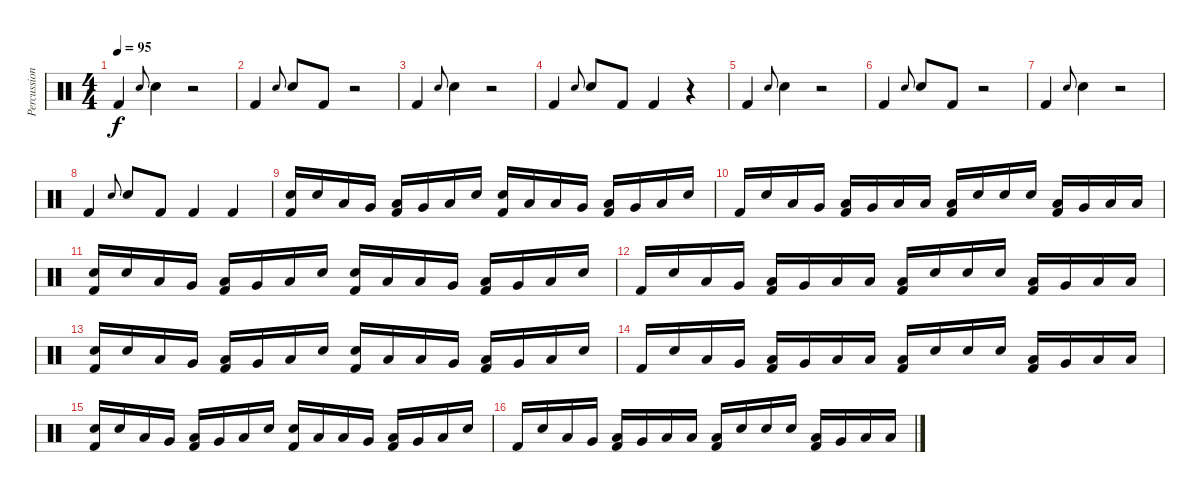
\track ("Percussion" "Percussion") {instrument percussion}
\staff {score}
\articulation defaults
\ts (4 4)
\tempo 95
\clef neutral
\ks c "Kick (hit) 2".4{dy f} "Electric Snare (hit)".8{gr onbeat} "Electric Snare (hit)".4
r.2 |
"Kick (hit) 2".4 "Electric Snare (hit)".8{gr onbeat} "Electric Snare (hit)".8 "Kick (hit) 2".8 r.2 |
"Kick (hit) 2".4 "Electric Snare (hit)".8{gr onbeat} "Electric Snare (hit)".4 r.2 |
"Kick (hit) 2".4 "Electric Snare (hit)".8{gr onbeat} "Electric Snare (hit)".8 "Kick (hit) 2".8 "Kick (hit) 2".4 r.4 |
"Kick (hit) 2".4 "Electric Snare (hit)".8{gr onbeat} "Electric Snare (hit)".4 r.2 |
"Kick (hit) 2".4 "Electric Snare (hit)".8{gr onbeat} "Electric Snare (hit)".8 "Kick (hit) 2".8 r.2 |
"Kick (hit) 2".4 "Electric Snare (hit)".8{gr onbeat} "Electric Snare (hit)".4 r.2 |
"Kick (hit) 2".4 "Electric Snare (hit)".8{gr onbeat} "Electric Snare (hit)".8 "Kick (hit) 2".8 "Kick (hit) 2".4 "Kick (hit) 2".4 |
("Electric Snare (hit)" "Kick (hit) 2").16 "Electric Snare (hit)".16 "Low Tom (hit)".16 "Very Low Tom (hit)".16 ("Low Tom (hit)" "Kick (hit) 2").16 "Very Low Tom (hit)".16 "Low Floor Tom (hit)".16 "Electric Snare (hit)".16 ("Electric Snare (hit)" "Kick (hit) 2").16 "Low Tom (hit)".16 "Low Tom (hit)".16 "Very Low Tom (hit)".16 ("Low Tom (hit)" "Kick (hit) 2").16 "Very Low Tom (hit)".16 "Low Floor Tom (hit)".16 "Electric Snare (hit)".16 |
"Kick (hit) 2".16 "Electric Snare (hit)".16 "Low Tom (hit)".16 "Very Low Tom (hit)".16 ("Low Tom (hit)" "Kick (hit) 2").16 "Very Low Tom (hit)".16 "Low Floor Tom (hit)".16 "Low Floor Tom (hit)".16 ("Low Floor Tom (hit)" "Kick (hit) 2").16 "Electric Snare (hit)".16 "Electric Snare (hit)".16 "Electric Snare (hit)".16 ("Low Tom (hit)" "Kick (hit) 2").16 "Very Low Tom (hit)".16 "Low Floor Tom (hit)".16 "Low Floor Tom (hit)".16 |
("Electric Snare (hit)" "Kick (hit) 2").16 "Electric Snare (hit)".16 "Low Tom (hit)".16 "Very Low Tom (hit)".16 ("Low Tom (hit)" "Kick (hit) 2").16 "Very Low Tom (hit)".16 "Low Floor Tom (hit)".16 "Electric Snare (hit)".16 ("Electric Snare (hit)" "Kick (hit) 2").16 "Low Tom (hit)".16 "Low Tom (hit)".16 "Very Low Tom (hit)".16 ("Low Tom (hit)" "Kick (hit) 2").16 "Very Low Tom (hit)".16 "Low Floor Tom (hit)".16 "Electric Snare (hit)".16 |
"Kick (hit) 2".16 "Electric Snare (hit)".16 "Low Tom (hit)".16 "Very Low Tom (hit)".16 ("Low Tom (hit)" "Kick (hit) 2").16 "Very Low Tom (hit)".16 "Low Floor Tom (hit)".16 "Low Floor Tom (hit)".16 ("Low Floor Tom (hit)" "Kick (hit) 2").16 "Electric Snare (hit)".16 "Electric Snare (hit)".16 "Electric Snare (hit)".16 ("Low Tom (hit)" "Kick (hit) 2").16 "Very Low Tom (hit)".16 "Low Floor Tom (hit)".16 "Low Floor Tom (hit)".16 |
("Electric Snare (hit)" "Kick (hit) 2").16 "Electric Snare (hit)".16 "Low Tom (hit)".16 "Very Low Tom (hit)".16 ("Low Tom (hit)" "Kick (hit) 2").16 "Very Low Tom (hit)".16 "Low Floor Tom (hit)".16 "Electric Snare (hit)".16 ("Electric Snare (hit)" "Kick (hit) 2").16 "Low Tom (hit)".16 "Low Tom (hit)".16 "Very Low Tom (hit)".16 ("Low Tom (hit)" "Kick (hit) 2").16 "Very Low Tom (hit)".16 "Low Floor Tom (hit)".16 "Electric Snare (hit)".16 |
"Kick (hit) 2".16 "Electric Snare (hit)".16 "Low Tom (hit)".16 "Very Low Tom (hit)".16 ("Low Tom (hit)" "Kick (hit) 2").16 "Very Low Tom (hit)".16 "Low Floor Tom (hit)".16 "Low Floor Tom (hit)".16 ("Low Floor Tom (hit)" "Kick (hit) 2").16 "Electric Snare (hit)".16 "Electric Snare (hit)".16 "Electric Snare (hit)".16 ("Low Tom (hit)" "Kick (hit) 2").16 "Very Low Tom (hit)".16 "Low Floor Tom (hit)".16 "Low Floor Tom (hit)".16 |
("Electric Snare (hit)" "Kick (hit) 2").16 "Electric Snare (hit)".16 "Low Tom (hit)".16 "Very Low Tom (hit)".16 ("Low Tom (hit)" "Kick (hit) 2").16 "Very Low Tom (hit)".16 "Low Floor Tom (hit)".16 "Electric Snare (hit)".16 ("Electric Snare (hit)" "Kick (hit) 2").16 "Low Tom (hit)".16 "Low Tom (hit)".16 "Very Low Tom (hit)".16 ("Low Tom (hit)" "Kick (hit) 2").16 "Very Low Tom (hit)".16 "Low Floor Tom (hit)".16 "Electric Snare (hit)".16 |
"Kick (hit) 2".16 "Electric Snare (hit)".16 "Low Tom (hit)".16 "Very Low Tom (hit)".16 ("Low Tom (hit)" "Kick (hit) 2").16 "Very Low Tom (hit)".16 "Low Floor Tom (hit)".16 "Low Floor Tom (hit)".16 ("Low Floor Tom (hit)" "Kick (hit) 2").16 "Electric Snare (hit)".16 "Electric Snare (hit)".16 "Electric Snare (hit)".16 ("Low Tom (hit)" "Kick (hit) 2").16 "Very Low Tom (hit)".16 "Low Floor Tom (hit)".16 "Low Floor Tom (hit)".16
